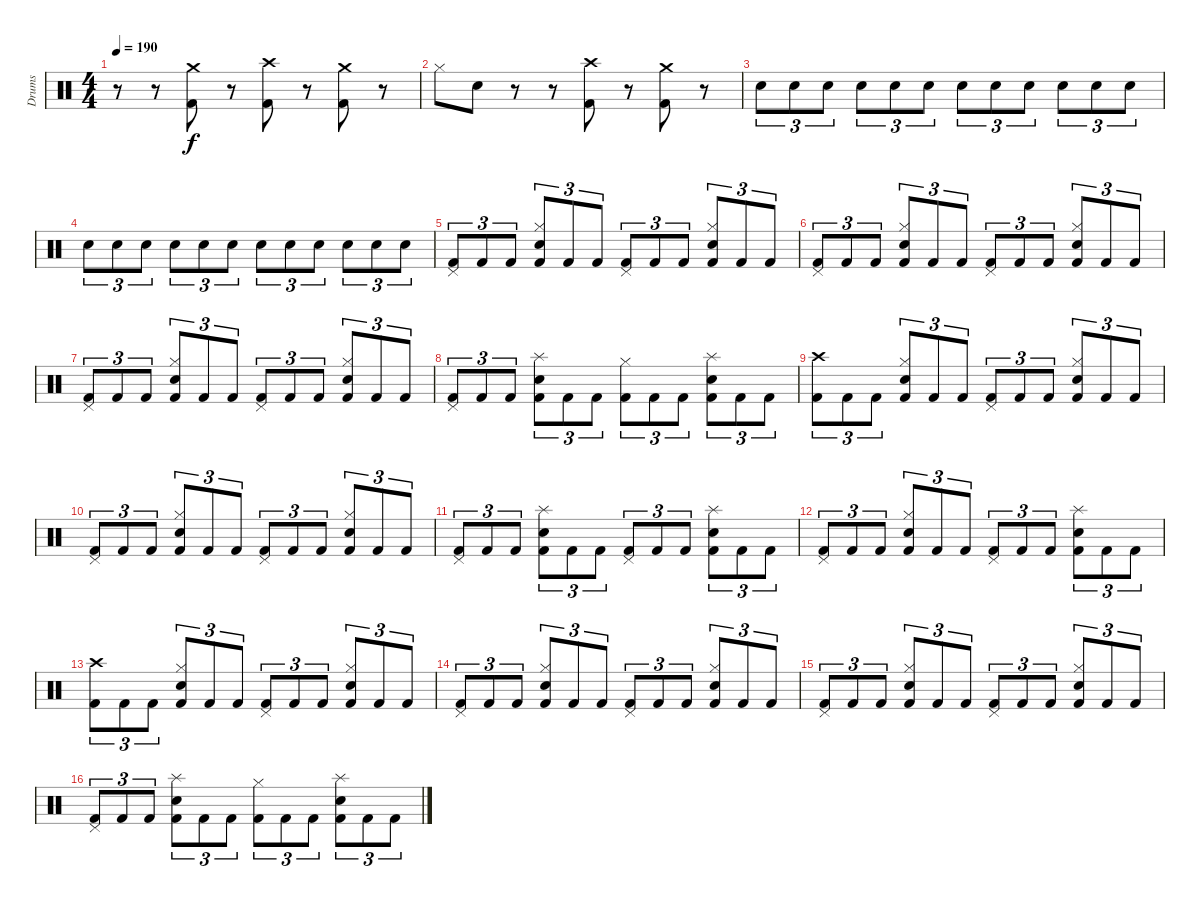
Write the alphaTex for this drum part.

\track ("Drums" "Drums") {instrument percussion}
\staff {score}
\articulation defaults
\ts (4 4)
\tempo 190
\clef neutral
\ks c
r.8{dy f} r.8 ("Crash medium (hit)" "Kick (hit) 2").8 r.8 ("Crash high (hit)" "Kick (hit) 2").8 r.8 ("Crash medium (hit)" "Kick (hit) 2").8 r.8 |
"Hi-Hat (closed)".8 "Snare (hit) 2".8 r.8 r.8 ("Crash high (hit)" "Kick (hit) 2").8 r.8 ("Crash medium (hit)" "Kick (hit) 2").8 r.8 |
"Snare (hit) 2".8{tu (3 2)} "Snare (hit) 2".8{tu (3 2)} "Snare (hit) 2".8{tu (3 2)} "Snare (hit) 2".8{tu (3 2)} "Snare (hit) 2".8{tu (3 2)} "Snare (hit) 2".8{tu (3 2)} "Snare (hit) 2".8{tu (3 2)} "Snare (hit) 2".8{tu (3 2)} "Snare (hit) 2".8{tu (3 2)} "Snare (hit) 2".8{tu (3 2)} "Snare (hit) 2".8{tu (3 2)} "Snare (hit) 2".8{tu (3 2)} |
"Snare (hit) 2".8{tu (3 2)} "Snare (hit) 2".8{tu (3 2)} "Snare (hit) 2".8{tu (3 2)} "Snare (hit) 2".8{tu (3 2)} "Snare (hit) 2".8{tu (3 2)} "Snare (hit) 2".8{tu (3 2)} "Snare (hit) 2".8{tu (3 2)} "Snare (hit) 2".8{tu (3 2)} "Snare (hit) 2".8{tu (3 2)} "Snare (hit) 2".8{tu (3 2)} "Snare (hit) 2".8{tu (3 2)} "Snare (hit) 2".8{tu (3 2)} |
("Pedal Hi-Hat (hit)" "Kick (hit) 2").8{tu (3 2)} "Kick (hit) 2".8{tu (3 2)} "Kick (hit) 2".8{tu (3 2)} ("Hi-Hat (closed)" "Snare (hit) 2" "Kick (hit) 2").8{tu (3 2)} "Kick (hit) 2".8{tu (3 2)} "Kick (hit) 2".8{tu (3 2)} ("Pedal Hi-Hat (hit)" "Kick (hit) 2").8{tu (3 2)} "Kick (hit) 2".8{tu (3 2)} "Kick (hit) 2".8{tu (3 2)} ("Hi-Hat (closed)" "Snare (hit) 2" "Kick (hit) 2").8{tu (3 2)} "Kick (hit) 2".8{tu (3 2)} "Kick (hit) 2".8{tu (3 2)} |
("Pedal Hi-Hat (hit)" "Kick (hit) 2").8{tu (3 2)} "Kick (hit) 2".8{tu (3 2)} "Kick (hit) 2".8{tu (3 2)} ("Hi-Hat (closed)" "Snare (hit) 2" "Kick (hit) 2").8{tu (3 2)} "Kick (hit) 2".8{tu (3 2)} "Kick (hit) 2".8{tu (3 2)} ("Pedal Hi-Hat (hit)" "Kick (hit) 2").8{tu (3 2)} "Kick (hit) 2".8{tu (3 2)} "Kick (hit) 2".8{tu (3 2)} ("Hi-Hat (closed)" "Snare (hit) 2" "Kick (hit) 2").8{tu (3 2)} "Kick (hit) 2".8{tu (3 2)} "Kick (hit) 2".8{tu (3 2)} |
("Pedal Hi-Hat (hit)" "Kick (hit) 2").8{tu (3 2)} "Kick (hit) 2".8{tu (3 2)} "Kick (hit) 2".8{tu (3 2)} ("Hi-Hat (closed)" "Snare (hit) 2" "Kick (hit) 2").8{tu (3 2)} "Kick (hit) 2".8{tu (3 2)} "Kick (hit) 2".8{tu (3 2)} ("Pedal Hi-Hat (hit)" "Kick (hit) 2").8{tu (3 2)} "Kick (hit) 2".8{tu (3 2)} "Kick (hit) 2".8{tu (3 2)} ("Hi-Hat (closed)" "Snare (hit) 2" "Kick (hit) 2").8{tu (3 2)} "Kick (hit) 2".8{tu (3 2)} "Kick (hit) 2".8{tu (3 2)} |
("Pedal Hi-Hat (hit)" "Kick (hit) 2").8{tu (3 2)} "Kick (hit) 2".8{tu (3 2)} "Kick (hit) 2".8{tu (3 2)} ("Splash (hit)" "Snare (hit) 2" "Kick (hit) 2").8{tu (3 2)} "Kick (hit) 2".8{tu (3 2)} "Kick (hit) 2".8{tu (3 2)} ("Hi-Hat (closed)" "Kick (hit) 2").8{tu (3 2)} "Kick (hit) 2".8{tu (3 2)} "Kick (hit) 2".8{tu (3 2)} ("Splash (hit)" "Snare (hit) 2" "Kick (hit) 2").8{tu (3 2)} "Kick (hit) 2".8{tu (3 2)} "Kick (hit) 2".8{tu (3 2)} |
("Crash high (hit)" "Kick (hit) 2").8{tu (3 2)} "Kick (hit) 2".8{tu (3 2)} "Kick (hit) 2".8{tu (3 2)} ("Hi-Hat (closed)" "Snare (hit) 2" "Kick (hit) 2").8{tu (3 2)} "Kick (hit) 2".8{tu (3 2)} "Kick (hit) 2".8{tu (3 2)} ("Pedal Hi-Hat (hit)" "Kick (hit) 2").8{tu (3 2)} "Kick (hit) 2".8{tu (3 2)} "Kick (hit) 2".8{tu (3 2)} ("Hi-Hat (closed)" "Snare (hit) 2" "Kick (hit) 2").8{tu (3 2)} "Kick (hit) 2".8{tu (3 2)} "Kick (hit) 2".8{tu (3 2)} |
("Pedal Hi-Hat (hit)" "Kick (hit) 2").8{tu (3 2)} "Kick (hit) 2".8{tu (3 2)} "Kick (hit) 2".8{tu (3 2)} ("Hi-Hat (closed)" "Snare (hit) 2" "Kick (hit) 2").8{tu (3 2)} "Kick (hit) 2".8{tu (3 2)} "Kick (hit) 2".8{tu (3 2)} ("Pedal Hi-Hat (hit)" "Kick (hit) 2").8{tu (3 2)} "Kick (hit) 2".8{tu (3 2)} "Kick (hit) 2".8{tu (3 2)} ("Hi-Hat (closed)" "Snare (hit) 2" "Kick (hit) 2").8{tu (3 2)} "Kick (hit) 2".8{tu (3 2)} "Kick (hit) 2".8{tu (3 2)} |
("Pedal Hi-Hat (hit)" "Kick (hit) 2").8{tu (3 2)} "Kick (hit) 2".8{tu (3 2)} "Kick (hit) 2".8{tu (3 2)} ("Splash (hit)" "Snare (hit) 2" "Kick (hit) 2").8{tu (3 2)} "Kick (hit) 2".8{tu (3 2)} "Kick (hit) 2".8{tu (3 2)} ("Pedal Hi-Hat (hit)" "Kick (hit) 2").8{tu (3 2)} "Kick (hit) 2".8{tu (3 2)} "Kick (hit) 2".8{tu (3 2)} ("Splash (hit)" "Snare (hit) 2" "Kick (hit) 2").8{tu (3 2)} "Kick (hit) 2".8{tu (3 2)} "Kick (hit) 2".8{tu (3 2)} |
("Pedal Hi-Hat (hit)" "Kick (hit) 2").8{tu (3 2)} "Kick (hit) 2".8{tu (3 2)} "Kick (hit) 2".8{tu (3 2)} ("Hi-Hat (closed)" "Snare (hit) 2" "Kick (hit) 2").8{tu (3 2)} "Kick (hit) 2".8{tu (3 2)} "Kick (hit) 2".8{tu (3 2)} ("Pedal Hi-Hat (hit)" "Kick (hit) 2").8{tu (3 2)} "Kick (hit) 2".8{tu (3 2)} "Kick (hit) 2".8{tu (3 2)} ("Splash (hit)" "Snare (hit) 2" "Kick (hit) 2").8{tu (3 2)} "Kick (hit) 2".8{tu (3 2)} "Kick (hit) 2".8{tu (3 2)} |
("Crash high (hit)" "Kick (hit) 2").8{tu (3 2)} "Kick (hit) 2".8{tu (3 2)} "Kick (hit) 2".8{tu (3 2)} ("Hi-Hat (closed)" "Snare (hit) 2" "Kick (hit) 2").8{tu (3 2)} "Kick (hit) 2".8{tu (3 2)} "Kick (hit) 2".8{tu (3 2)} ("Pedal Hi-Hat (hit)" "Kick (hit) 2").8{tu (3 2)} "Kick (hit) 2".8{tu (3 2)} "Kick (hit) 2".8{tu (3 2)} ("Hi-Hat (closed)" "Snare (hit) 2" "Kick (hit) 2").8{tu (3 2)} "Kick (hit) 2".8{tu (3 2)} "Kick (hit) 2".8{tu (3 2)} |
("Pedal Hi-Hat (hit)" "Kick (hit) 2").8{tu (3 2)} "Kick (hit) 2".8{tu (3 2)} "Kick (hit) 2".8{tu (3 2)} ("Hi-Hat (closed)" "Snare (hit) 2" "Kick (hit) 2").8{tu (3 2)} "Kick (hit) 2".8{tu (3 2)} "Kick (hit) 2".8{tu (3 2)} ("Pedal Hi-Hat (hit)" "Kick (hit) 2").8{tu (3 2)} "Kick (hit) 2".8{tu (3 2)} "Kick (hit) 2".8{tu (3 2)} ("Hi-Hat (closed)" "Snare (hit) 2" "Kick (hit) 2").8{tu (3 2)} "Kick (hit) 2".8{tu (3 2)} "Kick (hit) 2".8{tu (3 2)} |
("Pedal Hi-Hat (hit)" "Kick (hit) 2").8{tu (3 2)} "Kick (hit) 2".8{tu (3 2)} "Kick (hit) 2".8{tu (3 2)} ("Hi-Hat (closed)" "Snare (hit) 2" "Kick (hit) 2").8{tu (3 2)} "Kick (hit) 2".8{tu (3 2)} "Kick (hit) 2".8{tu (3 2)} ("Pedal Hi-Hat (hit)" "Kick (hit) 2").8{tu (3 2)} "Kick (hit) 2".8{tu (3 2)} "Kick (hit) 2".8{tu (3 2)} ("Hi-Hat (closed)" "Snare (hit) 2" "Kick (hit) 2").8{tu (3 2)} "Kick (hit) 2".8{tu (3 2)} "Kick (hit) 2".8{tu (3 2)} |
("Pedal Hi-Hat (hit)" "Kick (hit) 2").8{tu (3 2)} "Kick (hit) 2".8{tu (3 2)} "Kick (hit) 2".8{tu (3 2)} ("Splash (hit)" "Snare (hit) 2" "Kick (hit) 2").8{tu (3 2)} "Kick (hit) 2".8{tu (3 2)} "Kick (hit) 2".8{tu (3 2)} ("Hi-Hat (closed)" "Kick (hit) 2").8{tu (3 2)} "Kick (hit) 2".8{tu (3 2)} "Kick (hit) 2".8{tu (3 2)} ("Splash (hit)" "Snare (hit) 2" "Kick (hit) 2").8{tu (3 2)} "Kick (hit) 2".8{tu (3 2)} "Kick (hit) 2".8{tu (3 2)}
